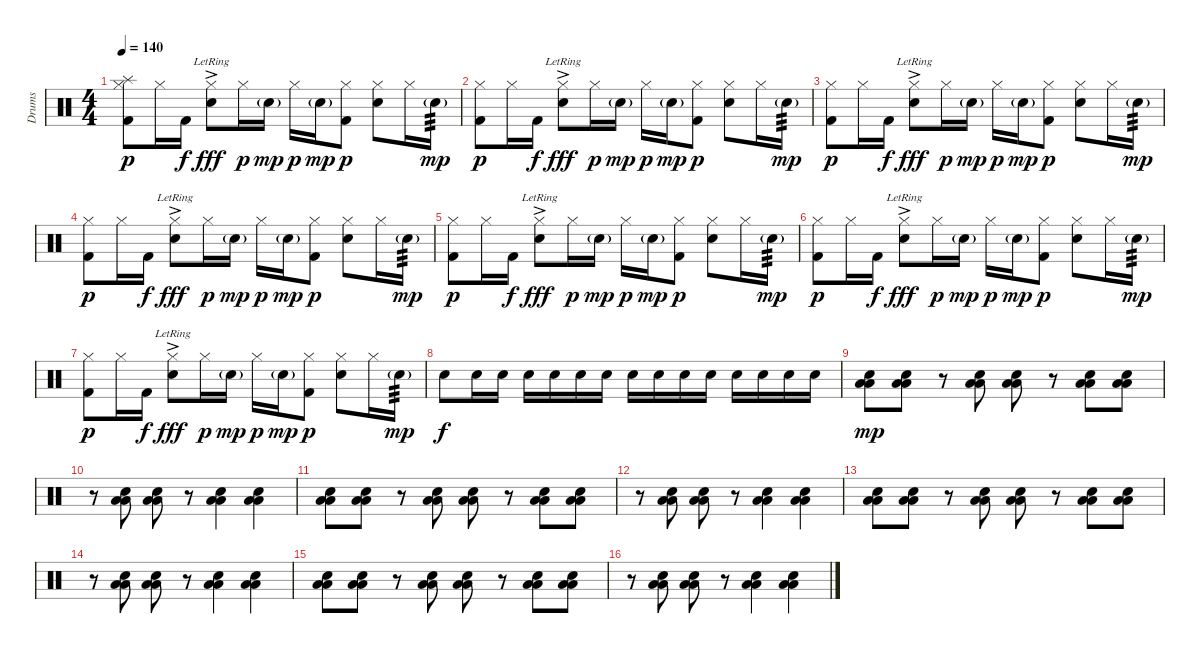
\track ("Drums" "Drums") {instrument percussion}
\staff {score}
\articulation defaults
\ts (4 4)
\tempo 140
\clef neutral
\ks c
("Hi-Hat (closed)" "Splash (hit)" "Kick (hit) 2").8{dy p} "Hi-Hat (closed)".16 "Kick (hit) 2".16{dy f} ("Hi-Hat (closed)" "Snare (hit) 2"{ac lr}).8{dy fff} "Hi-Hat (closed)".16{dy p} "Electric Snare (hit)"{g}.16{dy mp} "Hi-Hat (closed)".16{dy p} "Electric Snare (hit)"{g}.16{dy mp} ("Hi-Hat (closed)" "Kick (hit) 2").8{dy p} ("Hi-Hat (closed)" "Snare (hit) 2").8 "Hi-Hat (closed)".16 "Electric Snare (hit)"{g}.16{tp 3 dy mp} |
("Hi-Hat (closed)" "Kick (hit) 2").8{dy p} "Hi-Hat (closed)".16 "Kick (hit) 2".16{dy f} ("Hi-Hat (closed)" "Snare (hit) 2"{ac lr}).8{dy fff} "Hi-Hat (closed)".16{dy p} "Electric Snare (hit)"{g}.16{dy mp} "Hi-Hat (closed)".16{dy p} "Electric Snare (hit)"{g}.16{dy mp} ("Hi-Hat (closed)" "Kick (hit) 2").8{dy p} ("Hi-Hat (closed)" "Snare (hit) 2").8 "Hi-Hat (closed)".16 "Electric Snare (hit)"{g}.16{tp 3 dy mp} |
("Hi-Hat (closed)" "Kick (hit) 2").8{dy p} "Hi-Hat (closed)".16 "Kick (hit) 2".16{dy f} ("Hi-Hat (closed)" "Snare (hit) 2"{ac lr}).8{dy fff} "Hi-Hat (closed)".16{dy p} "Electric Snare (hit)"{g}.16{dy mp} "Hi-Hat (closed)".16{dy p} "Electric Snare (hit)"{g}.16{dy mp} ("Hi-Hat (closed)" "Kick (hit) 2").8{dy p} ("Hi-Hat (closed)" "Snare (hit) 2").8 "Hi-Hat (closed)".16 "Electric Snare (hit)"{g}.16{tp 3 dy mp} |
("Hi-Hat (closed)" "Kick (hit) 2").8{dy p} "Hi-Hat (closed)".16 "Kick (hit) 2".16{dy f} ("Hi-Hat (closed)" "Snare (hit) 2"{ac lr}).8{dy fff} "Hi-Hat (closed)".16{dy p} "Electric Snare (hit)"{g}.16{dy mp} "Hi-Hat (closed)".16{dy p} "Electric Snare (hit)"{g}.16{dy mp} ("Hi-Hat (closed)" "Kick (hit) 2").8{dy p} ("Hi-Hat (closed)" "Snare (hit) 2").8 "Hi-Hat (closed)".16 "Electric Snare (hit)"{g}.16{tp 3 dy mp} |
("Hi-Hat (closed)" "Kick (hit) 2").8{dy p} "Hi-Hat (closed)".16 "Kick (hit) 2".16{dy f} ("Hi-Hat (closed)" "Snare (hit) 2"{ac lr}).8{dy fff} "Hi-Hat (closed)".16{dy p} "Electric Snare (hit)"{g}.16{dy mp} "Hi-Hat (closed)".16{dy p} "Electric Snare (hit)"{g}.16{dy mp} ("Hi-Hat (closed)" "Kick (hit) 2").8{dy p} ("Hi-Hat (closed)" "Snare (hit) 2").8 "Hi-Hat (closed)".16 "Electric Snare (hit)"{g}.16{tp 3 dy mp} |
("Hi-Hat (closed)" "Kick (hit) 2").8{dy p} "Hi-Hat (closed)".16 "Kick (hit) 2".16{dy f} ("Hi-Hat (closed)" "Snare (hit) 2"{ac lr}).8{dy fff} "Hi-Hat (closed)".16{dy p} "Electric Snare (hit)"{g}.16{dy mp} "Hi-Hat (closed)".16{dy p} "Electric Snare (hit)"{g}.16{dy mp} ("Hi-Hat (closed)" "Kick (hit) 2").8{dy p} ("Hi-Hat (closed)" "Snare (hit) 2").8 "Hi-Hat (closed)".16 "Electric Snare (hit)"{g}.16{tp 3 dy mp} |
("Hi-Hat (closed)" "Kick (hit) 2").8{dy p} "Hi-Hat (closed)".16 "Kick (hit) 2".16{dy f} ("Hi-Hat (closed)" "Snare (hit) 2"{ac lr}).8{dy fff} "Hi-Hat (closed)".16{dy p} "Electric Snare (hit)"{g}.16{dy mp} "Hi-Hat (closed)".16{dy p} "Electric Snare (hit)"{g}.16{dy mp} ("Hi-Hat (closed)" "Kick (hit) 2").8{dy p} ("Hi-Hat (closed)" "Snare (hit) 2").8 "Hi-Hat (closed)".16 "Electric Snare (hit)"{g}.16{tp 3 dy mp} |
"Snare (hit) 2".8{dy f} "Electric Snare (hit)".16{volume 7} "Electric Snare (hit)".16{volume 13} "Electric Snare (hit)".16 "Electric Snare (hit)".16 "Electric Snare (hit)".16 "Electric Snare (hit)".16 "Electric Snare (hit)".16 "Electric Snare (hit)".16 "Electric Snare (hit)".16 "Electric Snare (hit)".16 "Electric Snare (hit)".16 "Electric Snare (hit)".16 "Electric Snare (hit)".16 "Electric Snare (hit)".16 |
("Electric Snare (hit)" "Low Tom (hit)" "Low Floor Tom (hit)").8{dy mp} ("Electric Snare (hit)" "Low Tom (hit)" "Low Floor Tom (hit)").8 r.8 ("Electric Snare (hit)" "Low Tom (hit)" "Low Floor Tom (hit)").8 ("Electric Snare (hit)" "Low Tom (hit)" "Low Floor Tom (hit)").8 r.8 ("Electric Snare (hit)" "Low Tom (hit)" "Low Floor Tom (hit)").8 ("Electric Snare (hit)" "Low Tom (hit)" "Low Floor Tom (hit)").8 |
r.8 ("Electric Snare (hit)" "Low Tom (hit)" "Low Floor Tom (hit)").8 ("Electric Snare (hit)" "Low Tom (hit)" "Low Floor Tom (hit)").8 r.8 ("Electric Snare (hit)" "Low Tom (hit)" "Low Floor Tom (hit)").4 ("Electric Snare (hit)" "Low Tom (hit)" "Low Floor Tom (hit)").4 |
("Electric Snare (hit)" "Low Tom (hit)" "Low Floor Tom (hit)").8 ("Electric Snare (hit)" "Low Tom (hit)" "Low Floor Tom (hit)").8 r.8 ("Electric Snare (hit)" "Low Tom (hit)" "Low Floor Tom (hit)").8 ("Electric Snare (hit)" "Low Tom (hit)" "Low Floor Tom (hit)").8 r.8 ("Electric Snare (hit)" "Low Tom (hit)" "Low Floor Tom (hit)").8 ("Electric Snare (hit)" "Low Tom (hit)" "Low Floor Tom (hit)").8 |
r.8 ("Electric Snare (hit)" "Low Tom (hit)" "Low Floor Tom (hit)").8 ("Electric Snare (hit)" "Low Tom (hit)" "Low Floor Tom (hit)").8 r.8 ("Electric Snare (hit)" "Low Tom (hit)" "Low Floor Tom (hit)").4 ("Electric Snare (hit)" "Low Tom (hit)" "Low Floor Tom (hit)").4 |
("Electric Snare (hit)" "Low Tom (hit)" "Low Floor Tom (hit)").8 ("Electric Snare (hit)" "Low Tom (hit)" "Low Floor Tom (hit)").8 r.8 ("Electric Snare (hit)" "Low Tom (hit)" "Low Floor Tom (hit)").8 ("Electric Snare (hit)" "Low Tom (hit)" "Low Floor Tom (hit)").8 r.8 ("Electric Snare (hit)" "Low Tom (hit)" "Low Floor Tom (hit)").8 ("Electric Snare (hit)" "Low Tom (hit)" "Low Floor Tom (hit)").8 |
r.8 ("Electric Snare (hit)" "Low Tom (hit)" "Low Floor Tom (hit)").8 ("Electric Snare (hit)" "Low Tom (hit)" "Low Floor Tom (hit)").8 r.8 ("Electric Snare (hit)" "Low Tom (hit)" "Low Floor Tom (hit)").4 ("Electric Snare (hit)" "Low Tom (hit)" "Low Floor Tom (hit)").4 |
("Electric Snare (hit)" "Low Tom (hit)" "Low Floor Tom (hit)").8 ("Electric Snare (hit)" "Low Tom (hit)" "Low Floor Tom (hit)").8 r.8 ("Electric Snare (hit)" "Low Tom (hit)" "Low Floor Tom (hit)").8 ("Electric Snare (hit)" "Low Tom (hit)" "Low Floor Tom (hit)").8 r.8 ("Electric Snare (hit)" "Low Tom (hit)" "Low Floor Tom (hit)").8 ("Electric Snare (hit)" "Low Tom (hit)" "Low Floor Tom (hit)").8 |
r.8 ("Electric Snare (hit)" "Low Tom (hit)" "Low Floor Tom (hit)").8 ("Electric Snare (hit)" "Low Tom (hit)" "Low Floor Tom (hit)").8 r.8 ("Electric Snare (hit)" "Low Tom (hit)" "Low Floor Tom (hit)").4 ("Electric Snare (hit)" "Low Tom (hit)" "Low Floor Tom (hit)").4
